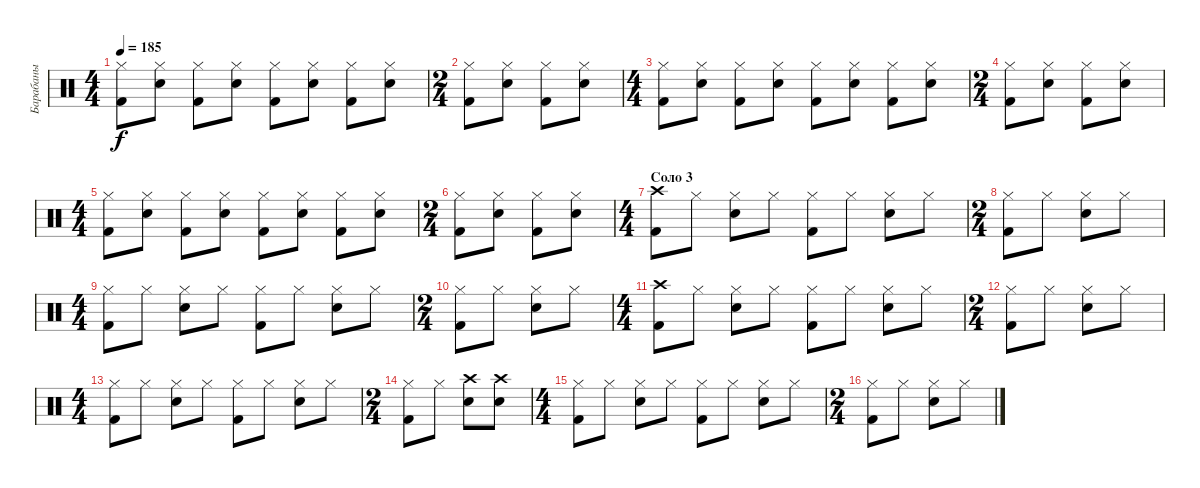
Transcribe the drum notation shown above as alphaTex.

\track ("Барабаны" "Барабаны") {instrument percussion}
\staff {score}
\articulation defaults
\ts (4 4)
\tempo 185
\clef neutral
\ks c
("Hi-Hat (closed)" "Kick (hit) 2").8{dy f} ("Hi-Hat (closed)" "Snare (hit) 2").8 ("Hi-Hat (closed)" "Kick (hit) 2").8 ("Hi-Hat (closed)" "Snare (hit) 2").8 ("Hi-Hat (closed)" "Kick (hit) 2").8 ("Hi-Hat (closed)" "Snare (hit) 2").8 ("Hi-Hat (closed)" "Kick (hit) 2").8 ("Hi-Hat (closed)" "Snare (hit) 2").8 |
\ts (2 4)
("Hi-Hat (closed)" "Kick (hit) 2").8 ("Hi-Hat (closed)" "Snare (hit) 2").8 ("Hi-Hat (closed)" "Kick (hit) 2").8 ("Hi-Hat (closed)" "Snare (hit) 2").8 |
\ts (4 4)
("Hi-Hat (closed)" "Kick (hit) 2").8 ("Hi-Hat (closed)" "Snare (hit) 2").8 ("Hi-Hat (closed)" "Kick (hit) 2").8 ("Hi-Hat (closed)" "Snare (hit) 2").8 ("Hi-Hat (closed)" "Kick (hit) 2").8 ("Hi-Hat (closed)" "Snare (hit) 2").8 ("Hi-Hat (closed)" "Kick (hit) 2").8 ("Hi-Hat (closed)" "Snare (hit) 2").8 |
\ts (2 4)
("Hi-Hat (closed)" "Kick (hit) 2").8 ("Hi-Hat (closed)" "Snare (hit) 2").8 ("Hi-Hat (closed)" "Kick (hit) 2").8 ("Hi-Hat (closed)" "Snare (hit) 2").8 |
\ts (4 4)
("Hi-Hat (closed)" "Kick (hit) 2").8 ("Hi-Hat (closed)" "Snare (hit) 2").8 ("Hi-Hat (closed)" "Kick (hit) 2").8 ("Hi-Hat (closed)" "Snare (hit) 2").8 ("Hi-Hat (closed)" "Kick (hit) 2").8 ("Hi-Hat (closed)" "Snare (hit) 2").8 ("Hi-Hat (closed)" "Kick (hit) 2").8 ("Hi-Hat (closed)" "Snare (hit) 2").8 |
\ts (2 4)
("Hi-Hat (closed)" "Kick (hit) 2").8 ("Hi-Hat (closed)" "Snare (hit) 2").8 ("Hi-Hat (closed)" "Kick (hit) 2").8 ("Hi-Hat (closed)" "Snare (hit) 2").8 |
\ts (4 4)
\section ("" "Соло 3")
("Crash high (hit)" "Kick (hit) 2").8 "Hi-Hat (closed)".8 ("Hi-Hat (closed)" "Snare (hit) 2").8 "Hi-Hat (closed)".8 ("Hi-Hat (closed)" "Kick (hit) 2").8 "Hi-Hat (closed)".8 ("Hi-Hat (closed)" "Snare (hit) 2").8 "Hi-Hat (closed)".8 |
\ts (2 4)
("Hi-Hat (closed)" "Kick (hit) 2").8 "Hi-Hat (closed)".8 ("Hi-Hat (closed)" "Snare (hit) 2").8 "Hi-Hat (closed)".8 |
\ts (4 4)
("Hi-Hat (closed)" "Kick (hit) 2").8 "Hi-Hat (closed)".8 ("Hi-Hat (closed)" "Snare (hit) 2").8 "Hi-Hat (closed)".8 ("Hi-Hat (closed)" "Kick (hit) 2").8 "Hi-Hat (closed)".8 ("Hi-Hat (closed)" "Snare (hit) 2").8 "Hi-Hat (closed)".8 |
\ts (2 4)
("Hi-Hat (closed)" "Kick (hit) 2").8 "Hi-Hat (closed)".8 ("Hi-Hat (closed)" "Snare (hit) 2").8 "Hi-Hat (closed)".8 |
\ts (4 4)
("Crash high (hit)" "Kick (hit) 2").8 "Hi-Hat (closed)".8 ("Hi-Hat (closed)" "Snare (hit) 2").8 "Hi-Hat (closed)".8 ("Hi-Hat (closed)" "Kick (hit) 2").8 "Hi-Hat (closed)".8 ("Hi-Hat (closed)" "Snare (hit) 2").8 "Hi-Hat (closed)".8 |
\ts (2 4)
("Hi-Hat (closed)" "Kick (hit) 2").8 "Hi-Hat (closed)".8 ("Hi-Hat (closed)" "Snare (hit) 2").8 "Hi-Hat (closed)".8 |
\ts (4 4)
("Hi-Hat (closed)" "Kick (hit) 2").8 "Hi-Hat (closed)".8 ("Hi-Hat (closed)" "Snare (hit) 2").8 "Hi-Hat (closed)".8 ("Hi-Hat (closed)" "Kick (hit) 2").8 "Hi-Hat (closed)".8 ("Hi-Hat (closed)" "Snare (hit) 2").8 "Hi-Hat (closed)".8 |
\ts (2 4)
("Hi-Hat (closed)" "Kick (hit) 2").8 "Hi-Hat (closed)".8 ("Crash high (hit)" "Snare (hit) 2").8 ("Crash high (hit)" "Snare (hit) 2").8 |
\ts (4 4)
("Hi-Hat (closed)" "Kick (hit) 2").8 "Hi-Hat (closed)".8 ("Hi-Hat (closed)" "Snare (hit) 2").8 "Hi-Hat (closed)".8 ("Hi-Hat (closed)" "Kick (hit) 2").8 "Hi-Hat (closed)".8 ("Hi-Hat (closed)" "Snare (hit) 2").8 "Hi-Hat (closed)".8 |
\ts (2 4)
("Hi-Hat (closed)" "Kick (hit) 2").8 "Hi-Hat (closed)".8 ("Hi-Hat (closed)" "Snare (hit) 2").8 "Hi-Hat (closed)".8
